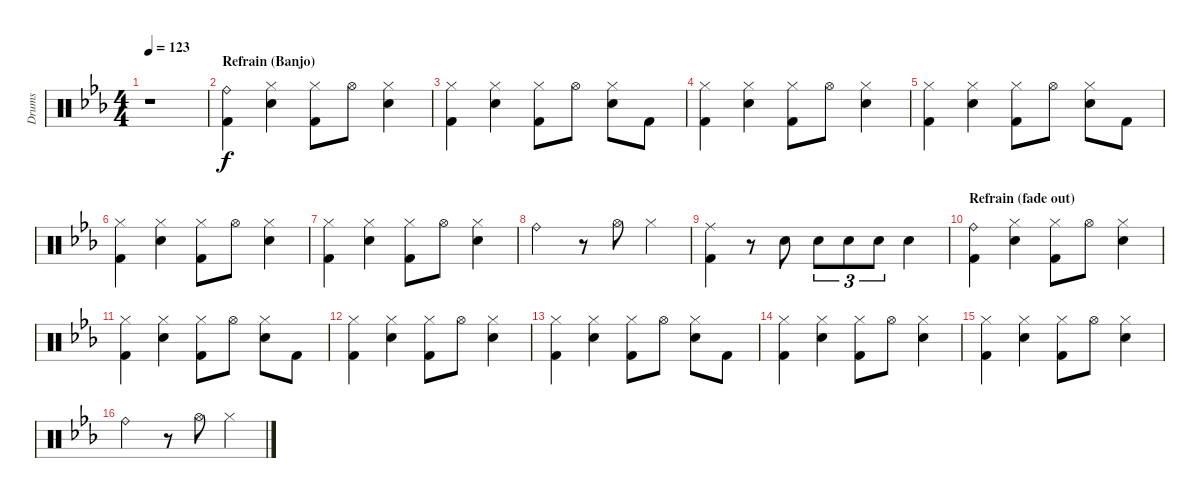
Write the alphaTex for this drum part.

\track ("Drums" "Drums") {instrument percussion}
\staff {score}
\articulation defaults
\ts (4 4)
\tempo 123
\clef neutral
\ks cminor
r.1{dy f} |
\section ("" "Refrain (Banjo)")
("Ride (bell)" "Kick (hit) 2").4 ("Hi-Hat (closed)" "Electric Snare (hit)").4 ("Hi-Hat (closed)" "Kick (hit) 2").8 "Hi-Hat (open)".8 ("Hi-Hat (closed)" "Electric Snare (hit)").4 |
("Hi-Hat (closed)" "Kick (hit) 2").4 ("Hi-Hat (closed)" "Electric Snare (hit)").4 ("Hi-Hat (closed)" "Kick (hit) 2").8 "Hi-Hat (open)".8 ("Hi-Hat (closed)" "Electric Snare (hit)").8 "Kick (hit) 2".8 |
("Hi-Hat (closed)" "Kick (hit) 2").4 ("Hi-Hat (closed)" "Electric Snare (hit)").4 ("Hi-Hat (closed)" "Kick (hit) 2").8 "Hi-Hat (open)".8 ("Hi-Hat (closed)" "Electric Snare (hit)").4 |
("Hi-Hat (closed)" "Kick (hit) 2").4 ("Hi-Hat (closed)" "Electric Snare (hit)").4 ("Hi-Hat (closed)" "Kick (hit) 2").8 "Hi-Hat (open)".8 ("Hi-Hat (closed)" "Electric Snare (hit)").8 "Kick (hit) 2".8 |
("Hi-Hat (closed)" "Kick (hit) 2").4 ("Hi-Hat (closed)" "Electric Snare (hit)").4 ("Hi-Hat (closed)" "Kick (hit) 2").8 "Hi-Hat (open)".8 ("Hi-Hat (closed)" "Electric Snare (hit)").4 |
("Hi-Hat (closed)" "Kick (hit) 2").4 ("Hi-Hat (closed)" "Electric Snare (hit)").4 ("Hi-Hat (closed)" "Kick (hit) 2").8 "Hi-Hat (open)".8 ("Hi-Hat (closed)" "Electric Snare (hit)").4 |
"Ride (bell)".2 r.8 "Hi-Hat (open)".8 "Hi-Hat (closed)".4 |
("Ride (middle)" "Kick (hit) 2").4 r.8 "Electric Snare (hit)".8 "Electric Snare (hit)".8{tu (3 2)} "Electric Snare (hit)".8{tu (3 2)} "Electric Snare (hit)".8{tu (3 2)} "Electric Snare (hit)".4 |
\section ("" "Refrain (fade out)")
("Ride (bell)" "Kick (hit) 2").4 ("Hi-Hat (closed)" "Electric Snare (hit)").4 ("Hi-Hat (closed)" "Kick (hit) 2").8 "Hi-Hat (open)".8 ("Hi-Hat (closed)" "Electric Snare (hit)").4 |
("Hi-Hat (closed)" "Kick (hit) 2").4 ("Hi-Hat (closed)" "Electric Snare (hit)").4 ("Hi-Hat (closed)" "Kick (hit) 2").8 "Hi-Hat (open)".8 ("Hi-Hat (closed)" "Electric Snare (hit)").8 "Kick (hit) 2".8 |
("Hi-Hat (closed)" "Kick (hit) 2").4 ("Hi-Hat (closed)" "Electric Snare (hit)").4 ("Hi-Hat (closed)" "Kick (hit) 2").8 "Hi-Hat (open)".8 ("Hi-Hat (closed)" "Electric Snare (hit)").4 |
("Hi-Hat (closed)" "Kick (hit) 2").4 ("Hi-Hat (closed)" "Electric Snare (hit)").4 ("Hi-Hat (closed)" "Kick (hit) 2").8 "Hi-Hat (open)".8 ("Hi-Hat (closed)" "Electric Snare (hit)").8 "Kick (hit) 2".8 |
("Hi-Hat (closed)" "Kick (hit) 2").4 ("Hi-Hat (closed)" "Electric Snare (hit)").4 ("Hi-Hat (closed)" "Kick (hit) 2").8 "Hi-Hat (open)".8 ("Hi-Hat (closed)" "Electric Snare (hit)").4 |
("Hi-Hat (closed)" "Kick (hit) 2").4 ("Hi-Hat (closed)" "Electric Snare (hit)").4 ("Hi-Hat (closed)" "Kick (hit) 2").8 "Hi-Hat (open)".8 ("Hi-Hat (closed)" "Electric Snare (hit)").4 |
"Ride (bell)".2 r.8 "Hi-Hat (open)".8 "Hi-Hat (closed)".4
